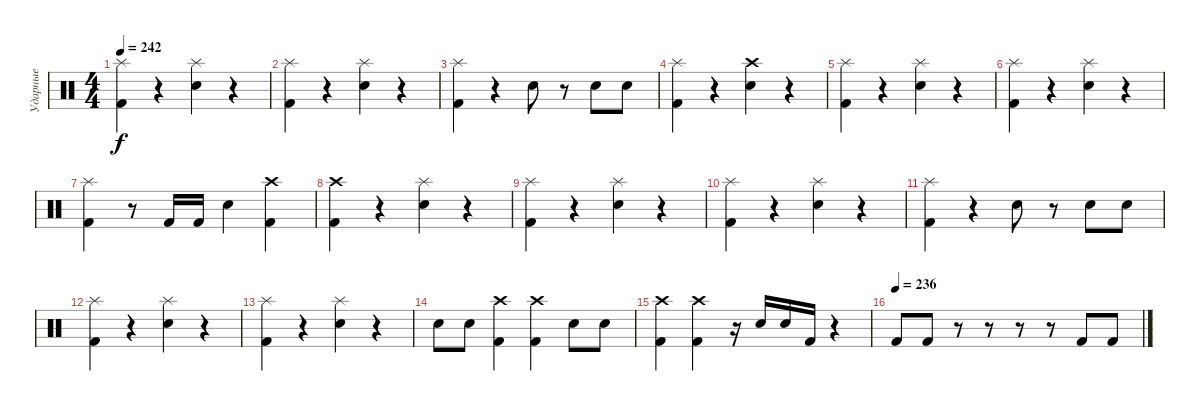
\track ("Ударные" "Ударные") {instrument percussion}
\staff {score}
\articulation defaults
\ts (4 4)
\tempo 242
\clef neutral
\ks c
("Splash (hit)" "Kick (hit) 2").4{dy f} r.4 ("Splash (hit)" "Electric Snare (hit)").4 r.4 |
("Splash (hit)" "Kick (hit) 2").4 r.4 ("Splash (hit)" "Electric Snare (hit)").4 r.4 |
("Splash (hit)" "Kick (hit) 2").4 r.4 "Electric Snare (hit)".8 r.8 "Electric Snare (hit)".8 "Electric Snare (hit)".8 |
("Splash (hit)" "Kick (hit) 2").4 r.4 ("Crash high (hit)" "Electric Snare (hit)").4 r.4 |
("Splash (hit)" "Kick (hit) 2").4 r.4 ("Splash (hit)" "Electric Snare (hit)").4 r.4 |
("Splash (hit)" "Kick (hit) 2").4 r.4 ("Splash (hit)" "Electric Snare (hit)").4 r.4 |
("Splash (hit)" "Kick (hit) 2").4 r.8 "Kick (hit) 2".16 "Kick (hit) 2".16 "Electric Snare (hit)".4 ("Crash high (hit)" "Kick (hit) 2").4 |
("Crash high (hit)" "Kick (hit) 2").4 r.4 ("Splash (hit)" "Electric Snare (hit)").4 r.4 |
("Splash (hit)" "Kick (hit) 2").4 r.4 ("Splash (hit)" "Electric Snare (hit)").4 r.4 |
("Splash (hit)" "Kick (hit) 2").4 r.4 ("Splash (hit)" "Electric Snare (hit)").4 r.4 |
("Splash (hit)" "Kick (hit) 2").4 r.4 "Electric Snare (hit)".8 r.8 "Electric Snare (hit)".8 "Electric Snare (hit)".8 |
("Splash (hit)" "Kick (hit) 2").4 r.4 ("Splash (hit)" "Electric Snare (hit)").4 r.4 |
("Splash (hit)" "Kick (hit) 2").4 r.4 ("Splash (hit)" "Electric Snare (hit)").4 r.4 |
"Electric Snare (hit)".8 "Electric Snare (hit)".8 ("Crash high (hit)" "Kick (hit) 2").4 ("Crash high (hit)" "Kick (hit) 2").4 "Electric Snare (hit)".8 "Electric Snare (hit)".8 |
("Crash high (hit)" "Kick (hit) 2").4 ("Crash high (hit)" "Kick (hit) 2").4 r.16 "Electric Snare (hit)".16 "Electric Snare (hit)".16 "Kick (hit) 2".16 r.4 |
\tempo (236)
"Kick (hit) 2".8 "Kick (hit) 2".8 r.8 r.8 r.8 r.8 "Kick (hit) 2".8 "Kick (hit) 2".8
